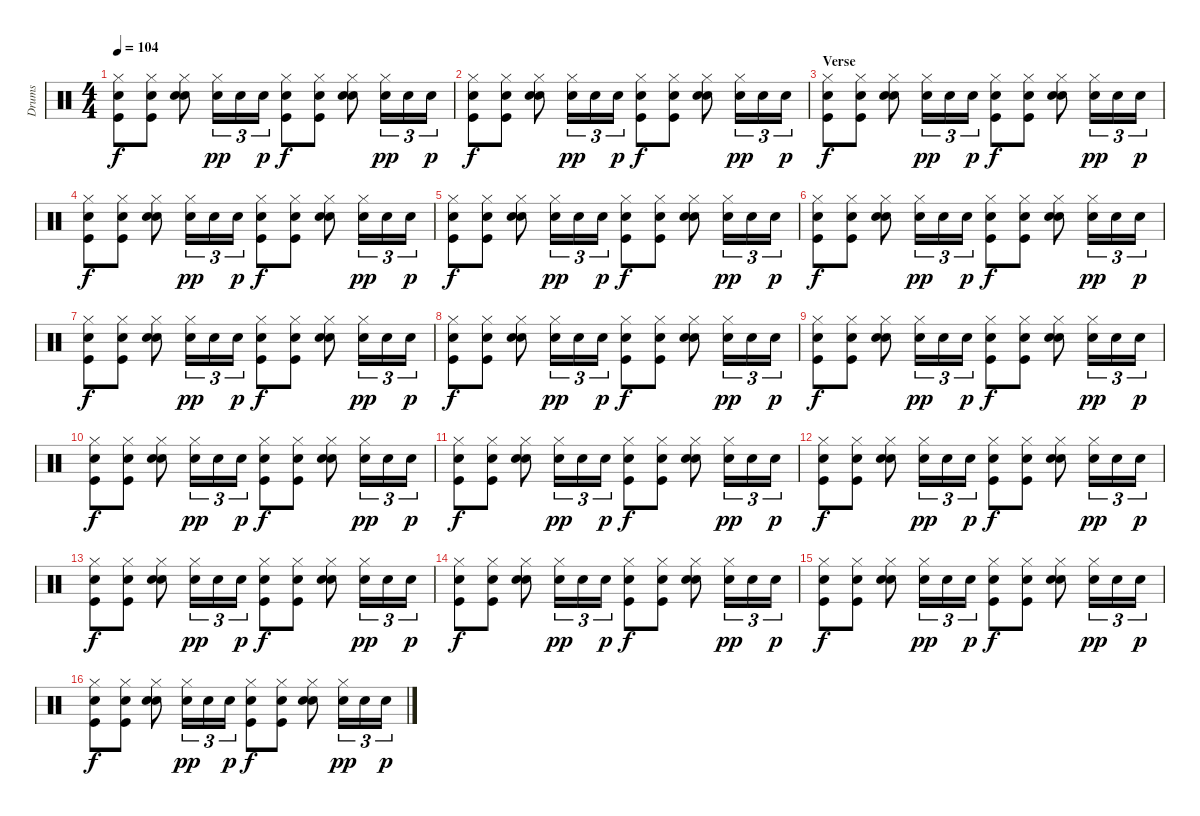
\track ("Drums" "Drums") {instrument percussion}
\staff {score}
\articulation defaults
\ts (4 4)
\tempo 104
\clef neutral
\ks c
("Hi-Hat (closed)" "Electric Snare (hit)" "Kick (hit)").8{dy f} ("Hi-Hat (closed)" "Electric Snare (hit)" "Kick (hit)").8 ("Hi-Hat (closed)" "Hand Clap (hit)" "Electric Snare (hit)").8 ("Hi-Hat (closed)" "Electric Snare (hit)").16{tu (3 2) dy pp} "Electric Snare (hit)".16{tu (3 2)} "Electric Snare (hit)".16{tu (3 2) dy p} ("Hi-Hat (closed)" "Electric Snare (hit)" "Kick (hit)").8{dy f} ("Hi-Hat (closed)" "Electric Snare (hit)" "Kick (hit)").8 ("Hi-Hat (closed)" "Hand Clap (hit)" "Electric Snare (hit)").8 ("Hi-Hat (closed)" "Electric Snare (hit)").16{tu (3 2) dy pp} "Electric Snare (hit)".16{tu (3 2)} "Electric Snare (hit)".16{tu (3 2) dy p} |
("Hi-Hat (closed)" "Electric Snare (hit)" "Kick (hit)").8{dy f} ("Hi-Hat (closed)" "Electric Snare (hit)" "Kick (hit)").8 ("Hi-Hat (closed)" "Hand Clap (hit)" "Electric Snare (hit)").8 ("Hi-Hat (closed)" "Electric Snare (hit)").16{tu (3 2) dy pp} "Electric Snare (hit)".16{tu (3 2)} "Electric Snare (hit)".16{tu (3 2) dy p} ("Hi-Hat (closed)" "Electric Snare (hit)" "Kick (hit)").8{dy f} ("Hi-Hat (closed)" "Electric Snare (hit)" "Kick (hit)").8 ("Hi-Hat (closed)" "Hand Clap (hit)" "Electric Snare (hit)").8 ("Hi-Hat (closed)" "Electric Snare (hit)").16{tu (3 2) dy pp} "Electric Snare (hit)".16{tu (3 2)} "Electric Snare (hit)".16{tu (3 2) dy p} |
\section ("" "Verse")
("Hi-Hat (closed)" "Electric Snare (hit)" "Kick (hit)").8{dy f} ("Hi-Hat (closed)" "Electric Snare (hit)" "Kick (hit)").8 ("Hi-Hat (closed)" "Hand Clap (hit)" "Electric Snare (hit)").8 ("Hi-Hat (closed)" "Electric Snare (hit)").16{tu (3 2) dy pp} "Electric Snare (hit)".16{tu (3 2)} "Electric Snare (hit)".16{tu (3 2) dy p} ("Hi-Hat (closed)" "Electric Snare (hit)" "Kick (hit)").8{dy f} ("Hi-Hat (closed)" "Electric Snare (hit)" "Kick (hit)").8 ("Hi-Hat (closed)" "Hand Clap (hit)" "Electric Snare (hit)").8 ("Hi-Hat (closed)" "Electric Snare (hit)").16{tu (3 2) dy pp} "Electric Snare (hit)".16{tu (3 2)} "Electric Snare (hit)".16{tu (3 2) dy p} |
("Hi-Hat (closed)" "Electric Snare (hit)" "Kick (hit)").8{dy f} ("Hi-Hat (closed)" "Electric Snare (hit)" "Kick (hit)").8 ("Hi-Hat (closed)" "Hand Clap (hit)" "Electric Snare (hit)").8 ("Hi-Hat (closed)" "Electric Snare (hit)").16{tu (3 2) dy pp} "Electric Snare (hit)".16{tu (3 2)} "Electric Snare (hit)".16{tu (3 2) dy p} ("Hi-Hat (closed)" "Electric Snare (hit)" "Kick (hit)").8{dy f} ("Hi-Hat (closed)" "Electric Snare (hit)" "Kick (hit)").8 ("Hi-Hat (closed)" "Hand Clap (hit)" "Electric Snare (hit)").8 ("Hi-Hat (closed)" "Electric Snare (hit)").16{tu (3 2) dy pp} "Electric Snare (hit)".16{tu (3 2)} "Electric Snare (hit)".16{tu (3 2) dy p} |
("Hi-Hat (closed)" "Electric Snare (hit)" "Kick (hit)").8{dy f} ("Hi-Hat (closed)" "Electric Snare (hit)" "Kick (hit)").8 ("Hi-Hat (closed)" "Hand Clap (hit)" "Electric Snare (hit)").8 ("Hi-Hat (closed)" "Electric Snare (hit)").16{tu (3 2) dy pp} "Electric Snare (hit)".16{tu (3 2)} "Electric Snare (hit)".16{tu (3 2) dy p} ("Hi-Hat (closed)" "Electric Snare (hit)" "Kick (hit)").8{dy f} ("Hi-Hat (closed)" "Electric Snare (hit)" "Kick (hit)").8 ("Hi-Hat (closed)" "Hand Clap (hit)" "Electric Snare (hit)").8 ("Hi-Hat (closed)" "Electric Snare (hit)").16{tu (3 2) dy pp} "Electric Snare (hit)".16{tu (3 2)} "Electric Snare (hit)".16{tu (3 2) dy p} |
("Hi-Hat (closed)" "Electric Snare (hit)" "Kick (hit)").8{dy f} ("Hi-Hat (closed)" "Electric Snare (hit)" "Kick (hit)").8 ("Hi-Hat (closed)" "Hand Clap (hit)" "Electric Snare (hit)").8 ("Hi-Hat (closed)" "Electric Snare (hit)").16{tu (3 2) dy pp} "Electric Snare (hit)".16{tu (3 2)} "Electric Snare (hit)".16{tu (3 2) dy p} ("Hi-Hat (closed)" "Electric Snare (hit)" "Kick (hit)").8{dy f} ("Hi-Hat (closed)" "Electric Snare (hit)" "Kick (hit)").8 ("Hi-Hat (closed)" "Hand Clap (hit)" "Electric Snare (hit)").8 ("Hi-Hat (closed)" "Electric Snare (hit)").16{tu (3 2) dy pp} "Electric Snare (hit)".16{tu (3 2)} "Electric Snare (hit)".16{tu (3 2) dy p} |
("Hi-Hat (closed)" "Electric Snare (hit)" "Kick (hit)").8{dy f} ("Hi-Hat (closed)" "Electric Snare (hit)" "Kick (hit)").8 ("Hi-Hat (closed)" "Hand Clap (hit)" "Electric Snare (hit)").8 ("Hi-Hat (closed)" "Electric Snare (hit)").16{tu (3 2) dy pp} "Electric Snare (hit)".16{tu (3 2)} "Electric Snare (hit)".16{tu (3 2) dy p} ("Hi-Hat (closed)" "Electric Snare (hit)" "Kick (hit)").8{dy f} ("Hi-Hat (closed)" "Electric Snare (hit)" "Kick (hit)").8 ("Hi-Hat (closed)" "Hand Clap (hit)" "Electric Snare (hit)").8 ("Hi-Hat (closed)" "Electric Snare (hit)").16{tu (3 2) dy pp} "Electric Snare (hit)".16{tu (3 2)} "Electric Snare (hit)".16{tu (3 2) dy p} |
("Hi-Hat (closed)" "Electric Snare (hit)" "Kick (hit)").8{dy f} ("Hi-Hat (closed)" "Electric Snare (hit)" "Kick (hit)").8 ("Hi-Hat (closed)" "Hand Clap (hit)" "Electric Snare (hit)").8 ("Hi-Hat (closed)" "Electric Snare (hit)").16{tu (3 2) dy pp} "Electric Snare (hit)".16{tu (3 2)} "Electric Snare (hit)".16{tu (3 2) dy p} ("Hi-Hat (closed)" "Electric Snare (hit)" "Kick (hit)").8{dy f} ("Hi-Hat (closed)" "Electric Snare (hit)" "Kick (hit)").8 ("Hi-Hat (closed)" "Hand Clap (hit)" "Electric Snare (hit)").8 ("Hi-Hat (closed)" "Electric Snare (hit)").16{tu (3 2) dy pp} "Electric Snare (hit)".16{tu (3 2)} "Electric Snare (hit)".16{tu (3 2) dy p} |
("Hi-Hat (closed)" "Electric Snare (hit)" "Kick (hit)").8{dy f} ("Hi-Hat (closed)" "Electric Snare (hit)" "Kick (hit)").8 ("Hi-Hat (closed)" "Hand Clap (hit)" "Electric Snare (hit)").8 ("Hi-Hat (closed)" "Electric Snare (hit)").16{tu (3 2) dy pp} "Electric Snare (hit)".16{tu (3 2)} "Electric Snare (hit)".16{tu (3 2) dy p} ("Hi-Hat (closed)" "Electric Snare (hit)" "Kick (hit)").8{dy f} ("Hi-Hat (closed)" "Electric Snare (hit)" "Kick (hit)").8 ("Hi-Hat (closed)" "Hand Clap (hit)" "Electric Snare (hit)").8 ("Hi-Hat (closed)" "Electric Snare (hit)").16{tu (3 2) dy pp} "Electric Snare (hit)".16{tu (3 2)} "Electric Snare (hit)".16{tu (3 2) dy p} |
("Hi-Hat (closed)" "Electric Snare (hit)" "Kick (hit)").8{dy f} ("Hi-Hat (closed)" "Electric Snare (hit)" "Kick (hit)").8 ("Hi-Hat (closed)" "Hand Clap (hit)" "Electric Snare (hit)").8 ("Hi-Hat (closed)" "Electric Snare (hit)").16{tu (3 2) dy pp} "Electric Snare (hit)".16{tu (3 2)} "Electric Snare (hit)".16{tu (3 2) dy p} ("Hi-Hat (closed)" "Electric Snare (hit)" "Kick (hit)").8{dy f} ("Hi-Hat (closed)" "Electric Snare (hit)" "Kick (hit)").8 ("Hi-Hat (closed)" "Hand Clap (hit)" "Electric Snare (hit)").8 ("Hi-Hat (closed)" "Electric Snare (hit)").16{tu (3 2) dy pp} "Electric Snare (hit)".16{tu (3 2)} "Electric Snare (hit)".16{tu (3 2) dy p} |
("Hi-Hat (closed)" "Electric Snare (hit)" "Kick (hit)").8{dy f} ("Hi-Hat (closed)" "Electric Snare (hit)" "Kick (hit)").8 ("Hi-Hat (closed)" "Hand Clap (hit)" "Electric Snare (hit)").8 ("Hi-Hat (closed)" "Electric Snare (hit)").16{tu (3 2) dy pp} "Electric Snare (hit)".16{tu (3 2)} "Electric Snare (hit)".16{tu (3 2) dy p} ("Hi-Hat (closed)" "Electric Snare (hit)" "Kick (hit)").8{dy f} ("Hi-Hat (closed)" "Electric Snare (hit)" "Kick (hit)").8 ("Hi-Hat (closed)" "Hand Clap (hit)" "Electric Snare (hit)").8 ("Hi-Hat (closed)" "Electric Snare (hit)").16{tu (3 2) dy pp} "Electric Snare (hit)".16{tu (3 2)} "Electric Snare (hit)".16{tu (3 2) dy p} |
("Hi-Hat (closed)" "Electric Snare (hit)" "Kick (hit)").8{dy f} ("Hi-Hat (closed)" "Electric Snare (hit)" "Kick (hit)").8 ("Hi-Hat (closed)" "Hand Clap (hit)" "Electric Snare (hit)").8 ("Hi-Hat (closed)" "Electric Snare (hit)").16{tu (3 2) dy pp} "Electric Snare (hit)".16{tu (3 2)} "Electric Snare (hit)".16{tu (3 2) dy p} ("Hi-Hat (closed)" "Electric Snare (hit)" "Kick (hit)").8{dy f} ("Hi-Hat (closed)" "Electric Snare (hit)" "Kick (hit)").8 ("Hi-Hat (closed)" "Hand Clap (hit)" "Electric Snare (hit)").8 ("Hi-Hat (closed)" "Electric Snare (hit)").16{tu (3 2) dy pp} "Electric Snare (hit)".16{tu (3 2)} "Electric Snare (hit)".16{tu (3 2) dy p} |
("Hi-Hat (closed)" "Electric Snare (hit)" "Kick (hit)").8{dy f} ("Hi-Hat (closed)" "Electric Snare (hit)" "Kick (hit)").8 ("Hi-Hat (closed)" "Hand Clap (hit)" "Electric Snare (hit)").8 ("Hi-Hat (closed)" "Electric Snare (hit)").16{tu (3 2) dy pp} "Electric Snare (hit)".16{tu (3 2)} "Electric Snare (hit)".16{tu (3 2) dy p} ("Hi-Hat (closed)" "Electric Snare (hit)" "Kick (hit)").8{dy f} ("Hi-Hat (closed)" "Electric Snare (hit)" "Kick (hit)").8 ("Hi-Hat (closed)" "Hand Clap (hit)" "Electric Snare (hit)").8 ("Hi-Hat (closed)" "Electric Snare (hit)").16{tu (3 2) dy pp} "Electric Snare (hit)".16{tu (3 2)} "Electric Snare (hit)".16{tu (3 2) dy p} |
("Hi-Hat (closed)" "Electric Snare (hit)" "Kick (hit)").8{dy f} ("Hi-Hat (closed)" "Electric Snare (hit)" "Kick (hit)").8 ("Hi-Hat (closed)" "Hand Clap (hit)" "Electric Snare (hit)").8 ("Hi-Hat (closed)" "Electric Snare (hit)").16{tu (3 2) dy pp} "Electric Snare (hit)".16{tu (3 2)} "Electric Snare (hit)".16{tu (3 2) dy p} ("Hi-Hat (closed)" "Electric Snare (hit)" "Kick (hit)").8{dy f} ("Hi-Hat (closed)" "Electric Snare (hit)" "Kick (hit)").8 ("Hi-Hat (closed)" "Hand Clap (hit)" "Electric Snare (hit)").8 ("Hi-Hat (closed)" "Electric Snare (hit)").16{tu (3 2) dy pp} "Electric Snare (hit)".16{tu (3 2)} "Electric Snare (hit)".16{tu (3 2) dy p} |
("Hi-Hat (closed)" "Electric Snare (hit)" "Kick (hit)").8{dy f} ("Hi-Hat (closed)" "Electric Snare (hit)" "Kick (hit)").8 ("Hi-Hat (closed)" "Hand Clap (hit)" "Electric Snare (hit)").8 ("Hi-Hat (closed)" "Electric Snare (hit)").16{tu (3 2) dy pp} "Electric Snare (hit)".16{tu (3 2)} "Electric Snare (hit)".16{tu (3 2) dy p} ("Hi-Hat (closed)" "Electric Snare (hit)" "Kick (hit)").8{dy f} ("Hi-Hat (closed)" "Electric Snare (hit)" "Kick (hit)").8 ("Hi-Hat (closed)" "Hand Clap (hit)" "Electric Snare (hit)").8 ("Hi-Hat (closed)" "Electric Snare (hit)").16{tu (3 2) dy pp} "Electric Snare (hit)".16{tu (3 2)} "Electric Snare (hit)".16{tu (3 2) dy p} |
("Hi-Hat (closed)" "Electric Snare (hit)" "Kick (hit)").8{dy f} ("Hi-Hat (closed)" "Electric Snare (hit)" "Kick (hit)").8 ("Hi-Hat (closed)" "Hand Clap (hit)" "Electric Snare (hit)").8 ("Hi-Hat (closed)" "Electric Snare (hit)").16{tu (3 2) dy pp} "Electric Snare (hit)".16{tu (3 2)} "Electric Snare (hit)".16{tu (3 2) dy p} ("Hi-Hat (closed)" "Electric Snare (hit)" "Kick (hit)").8{dy f} ("Hi-Hat (closed)" "Electric Snare (hit)" "Kick (hit)").8 ("Hi-Hat (closed)" "Hand Clap (hit)" "Electric Snare (hit)").8 ("Hi-Hat (closed)" "Electric Snare (hit)").16{tu (3 2) dy pp} "Electric Snare (hit)".16{tu (3 2)} "Electric Snare (hit)".16{tu (3 2) dy p}
